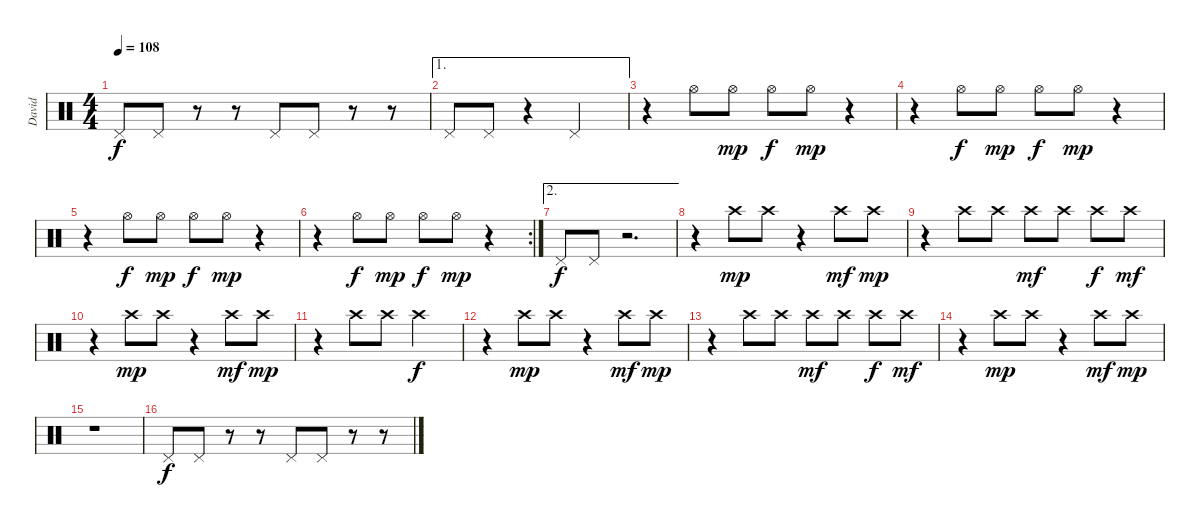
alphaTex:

\track ("David" "David") {instrument percussion}
\staff {score}
\articulation defaults
\ts (4 4)
\tempo 108
\clef neutral
\ks c "Pedal Hi-Hat (hit)".8{dy f} "Pedal Hi-Hat (hit)".8
r.8 r.8 "Pedal Hi-Hat (hit)".8 "Pedal Hi-Hat (hit)".8 r.8 r.8 |
\ae 1 "Pedal Hi-Hat (hit)".8 "Pedal Hi-Hat (hit)".8
r.4 "Pedal Hi-Hat (hit)".2 |
r.4 "Hi-Hat (open)".8 "Hi-Hat (open)".8{dy mp} "Hi-Hat (open)".8{dy f} "Hi-Hat (open)".8{dy mp} r.4 |
r.4 "Hi-Hat (open)".8{dy f} "Hi-Hat (open)".8{dy mp} "Hi-Hat (open)".8{dy f} "Hi-Hat (open)".8{dy mp} r.4 |
r.4 "Hi-Hat (open)".8{dy f} "Hi-Hat (open)".8{dy mp} "Hi-Hat (open)".8{dy f} "Hi-Hat (open)".8{dy mp} r.4 |
\rc 2
r.4 "Hi-Hat (open)".8{dy f} "Hi-Hat (open)".8{dy mp} "Hi-Hat (open)".8{dy f} "Hi-Hat (open)".8{dy mp} r.4 |
\ae 2 "Pedal Hi-Hat (hit)".8{dy f} "Pedal Hi-Hat (hit)".8
r.2{d} |
r.4 "Crash high (hit)".8{dy mp} "Crash high (hit)".8 r.4 "Crash high (hit)".8{dy mf} "Crash high (hit)".8{dy mp} |
r.4 "Crash high (hit)".8 "Crash high (hit)".8 "Crash high (hit)".8{dy mf} "Crash high (hit)".8 "Crash high (hit)".8{dy f} "Crash high (hit)".8{dy mf} |
r.4 "Crash high (hit)".8{dy mp} "Crash high (hit)".8 r.4 "Crash high (hit)".8{dy mf} "Crash high (hit)".8{dy mp} |
r.4 "Crash high (hit)".8 "Crash high (hit)".8 "Crash high (hit)".2{dy f} |
r.4 "Crash high (hit)".8{dy mp} "Crash high (hit)".8 r.4 "Crash high (hit)".8{dy mf} "Crash high (hit)".8{dy mp} |
r.4 "Crash high (hit)".8 "Crash high (hit)".8 "Crash high (hit)".8{dy mf} "Crash high (hit)".8 "Crash high (hit)".8{dy f} "Crash high (hit)".8{dy mf} |
r.4 "Crash high (hit)".8{dy mp} "Crash high (hit)".8 r.4 "Crash high (hit)".8{dy mf} "Crash high (hit)".8{dy mp} |
r.1 |
"Pedal Hi-Hat (hit)".8{dy f} "Pedal Hi-Hat (hit)".8 r.8 r.8 "Pedal Hi-Hat (hit)".8 "Pedal Hi-Hat (hit)".8 r.8 r.8
